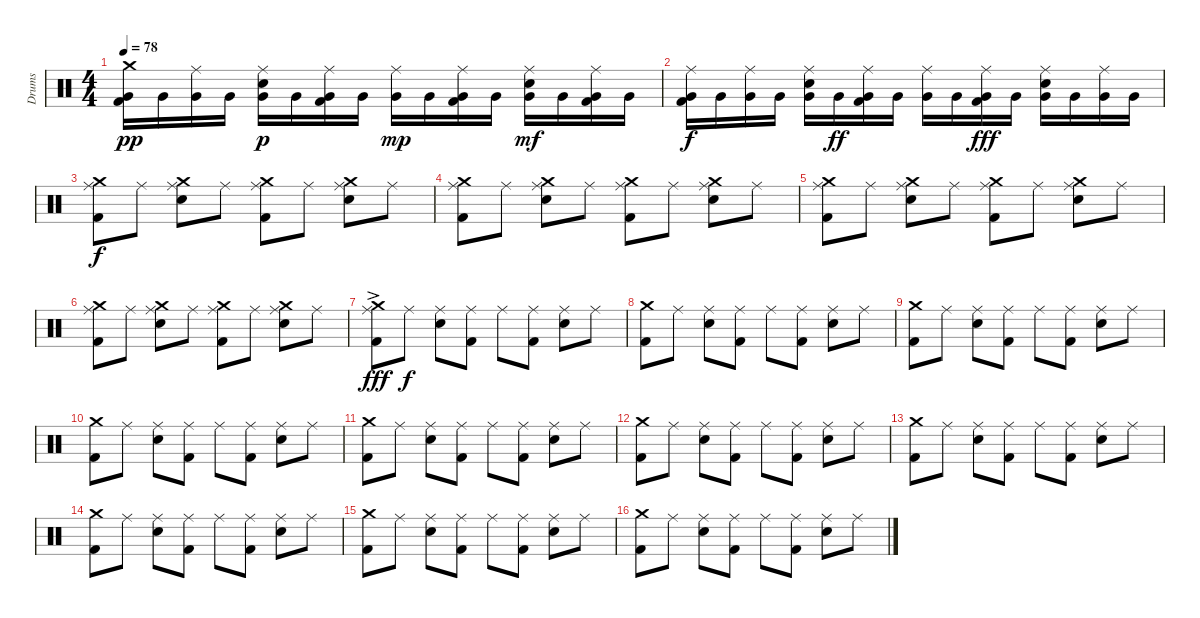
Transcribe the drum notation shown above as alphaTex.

\track ("Drums" "Drums") {instrument percussion}
\staff {score}
\articulation defaults
\ts (4 4)
\tempo 78
\clef neutral
\ks c
("Crash medium (hit)" "Very Low Tom (hit)" "Kick (hit) 2").16{dy pp} "Very Low Tom (hit)".16 ("Ride (middle)" "Very Low Tom (hit)").16 "Very Low Tom (hit)".16 ("Ride (middle)" "Very Low Tom (hit)" "Electric Snare (hit)").16{dy p} "Very Low Tom (hit)".16 ("Ride (middle)" "Very Low Tom (hit)" "Kick (hit) 2").16 "Very Low Tom (hit)".16 ("Ride (middle)" "Very Low Tom (hit)").16{dy mp} "Very Low Tom (hit)".16 ("Ride (middle)" "Very Low Tom (hit)" "Kick (hit) 2").16 "Very Low Tom (hit)".16 ("Ride (middle)" "Very Low Tom (hit)" "Electric Snare (hit)").16{dy mf} "Very Low Tom (hit)".16 ("Ride (middle)" "Very Low Tom (hit)" "Kick (hit) 2").16 "Very Low Tom (hit)".16 |
("Ride (middle)" "Very Low Tom (hit)" "Kick (hit) 2").16{dy f} "Very Low Tom (hit)".16 ("Ride (middle)" "Very Low Tom (hit)").16 "Very Low Tom (hit)".16 ("Ride (middle)" "Very Low Tom (hit)" "Electric Snare (hit)").16 "Very Low Tom (hit)".16{dy ff} ("Ride (middle)" "Very Low Tom (hit)" "Kick (hit) 2").16 "Very Low Tom (hit)".16 ("Ride (middle)" "Very Low Tom (hit)").16 "Very Low Tom (hit)".16 ("Ride (middle)" "Very Low Tom (hit)" "Kick (hit) 2").16{dy fff} "Very Low Tom (hit)".16 ("Ride (middle)" "Very Low Tom (hit)" "Electric Snare (hit)").16 "Very Low Tom (hit)".16 ("Ride (middle)" "Very Low Tom (hit)").16 "Very Low Tom (hit)".16 |
("Crash medium (hit)" "Ride (middle)" "Kick (hit) 2").8{dy f} "Ride (middle)".8 ("Crash medium (hit)" "Ride (middle)" "Electric Snare (hit)").8 "Ride (middle)".8 ("Crash medium (hit)" "Ride (middle)" "Kick (hit) 2").8 "Ride (middle)".8 ("Crash medium (hit)" "Ride (middle)" "Electric Snare (hit)").8 "Ride (middle)".8 |
("Crash medium (hit)" "Ride (middle)" "Kick (hit) 2").8 "Ride (middle)".8 ("Crash medium (hit)" "Ride (middle)" "Electric Snare (hit)").8 "Ride (middle)".8 ("Crash medium (hit)" "Ride (middle)" "Kick (hit) 2").8 "Ride (middle)".8 ("Crash medium (hit)" "Ride (middle)" "Electric Snare (hit)").8 "Ride (middle)".8 |
("Crash medium (hit)" "Ride (middle)" "Kick (hit) 2").8 "Ride (middle)".8 ("Crash medium (hit)" "Ride (middle)" "Electric Snare (hit)").8 "Ride (middle)".8 ("Crash medium (hit)" "Ride (middle)" "Kick (hit) 2").8 "Ride (middle)".8 ("Crash medium (hit)" "Ride (middle)" "Electric Snare (hit)").8 "Ride (middle)".8 |
("Crash medium (hit)" "Ride (middle)" "Kick (hit) 2").8 "Ride (middle)".8 ("Crash medium (hit)" "Ride (middle)" "Electric Snare (hit)").8 "Ride (middle)".8 ("Crash medium (hit)" "Ride (middle)" "Kick (hit) 2").8 "Ride (middle)".8 ("Crash medium (hit)" "Ride (middle)" "Electric Snare (hit)").8 "Ride (middle)".8 |
("Crash medium (hit)"{ac} "Ride (middle)" "Kick (hit) 2").8{dy fff} "Ride (middle)".8{dy f} ("Ride (middle)" "Electric Snare (hit)").8 ("Ride (middle)" "Kick (hit) 2").8 "Ride (middle)".8 ("Ride (middle)" "Kick (hit) 2").8 ("Ride (middle)" "Electric Snare (hit)").8 "Ride (middle)".8 |
("Crash medium (hit)" "Kick (hit) 2").8 "Ride (middle)".8 ("Ride (middle)" "Electric Snare (hit)").8 ("Ride (middle)" "Kick (hit) 2").8 "Ride (middle)".8 ("Ride (middle)" "Kick (hit) 2").8 ("Ride (middle)" "Electric Snare (hit)").8 "Ride (middle)".8 |
("Crash medium (hit)" "Kick (hit) 2").8 "Ride (middle)".8 ("Ride (middle)" "Electric Snare (hit)").8 ("Ride (middle)" "Kick (hit) 2").8 "Ride (middle)".8 ("Ride (middle)" "Kick (hit) 2").8 ("Ride (middle)" "Electric Snare (hit)").8 "Ride (middle)".8 |
("Crash medium (hit)" "Kick (hit) 2").8 "Ride (middle)".8 ("Ride (middle)" "Electric Snare (hit)").8 ("Ride (middle)" "Kick (hit) 2").8 "Ride (middle)".8 ("Ride (middle)" "Kick (hit) 2").8 ("Ride (middle)" "Electric Snare (hit)").8 "Ride (middle)".8 |
("Crash medium (hit)" "Kick (hit) 2").8 "Ride (middle)".8 ("Ride (middle)" "Electric Snare (hit)").8 ("Ride (middle)" "Kick (hit) 2").8 "Ride (middle)".8 ("Ride (middle)" "Kick (hit) 2").8 ("Ride (middle)" "Electric Snare (hit)").8 "Ride (middle)".8 |
("Crash medium (hit)" "Kick (hit) 2").8 "Ride (middle)".8 ("Ride (middle)" "Electric Snare (hit)").8 ("Ride (middle)" "Kick (hit) 2").8 "Ride (middle)".8 ("Ride (middle)" "Kick (hit) 2").8 ("Ride (middle)" "Electric Snare (hit)").8 "Ride (middle)".8 |
("Crash medium (hit)" "Kick (hit) 2").8 "Ride (middle)".8 ("Ride (middle)" "Electric Snare (hit)").8 ("Ride (middle)" "Kick (hit) 2").8 "Ride (middle)".8 ("Ride (middle)" "Kick (hit) 2").8 ("Ride (middle)" "Electric Snare (hit)").8 "Ride (middle)".8 |
("Crash medium (hit)" "Kick (hit) 2").8 "Ride (middle)".8 ("Ride (middle)" "Electric Snare (hit)").8 ("Ride (middle)" "Kick (hit) 2").8 "Ride (middle)".8 ("Ride (middle)" "Kick (hit) 2").8 ("Ride (middle)" "Electric Snare (hit)").8 "Ride (middle)".8 |
("Crash medium (hit)" "Kick (hit) 2").8 "Ride (middle)".8 ("Ride (middle)" "Electric Snare (hit)").8 ("Ride (middle)" "Kick (hit) 2").8 "Ride (middle)".8 ("Ride (middle)" "Kick (hit) 2").8 ("Ride (middle)" "Electric Snare (hit)").8 "Ride (middle)".8 |
("Crash medium (hit)" "Kick (hit) 2").8 "Ride (middle)".8 ("Ride (middle)" "Electric Snare (hit)").8 ("Ride (middle)" "Kick (hit) 2").8 "Ride (middle)".8 ("Ride (middle)" "Kick (hit) 2").8 ("Ride (middle)" "Electric Snare (hit)").8 "Ride (middle)".8
